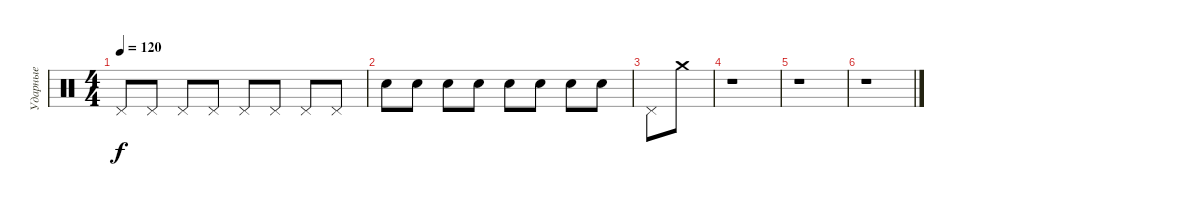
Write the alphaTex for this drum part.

\track ("Ударные" "Ударные") {instrument percussion}
\staff {score}
\articulation defaults
\ts (4 4)
\tempo 120
\clef neutral
\ks c "Pedal Hi-Hat (hit)".8{dy f} "Pedal Hi-Hat (hit)".8 "Pedal Hi-Hat (hit)".8 "Pedal Hi-Hat (hit)".8 "Pedal Hi-Hat (hit)".8 "Pedal Hi-Hat (hit)".8 "Pedal Hi-Hat (hit)".8 "Pedal Hi-Hat (hit)".8
|
"Snare (hit) 2".8 "Snare (hit) 2".8 "Snare (hit) 2".8 "Snare (hit) 2".8 "Snare (hit) 2".8 "Snare (hit) 2".8 "Snare (hit) 2".8 "Snare (hit) 2".8 |
"Pedal Hi-Hat (hit)".8 "Crash medium (hit)".8 |
r.1 |
r.1 |
r.1
